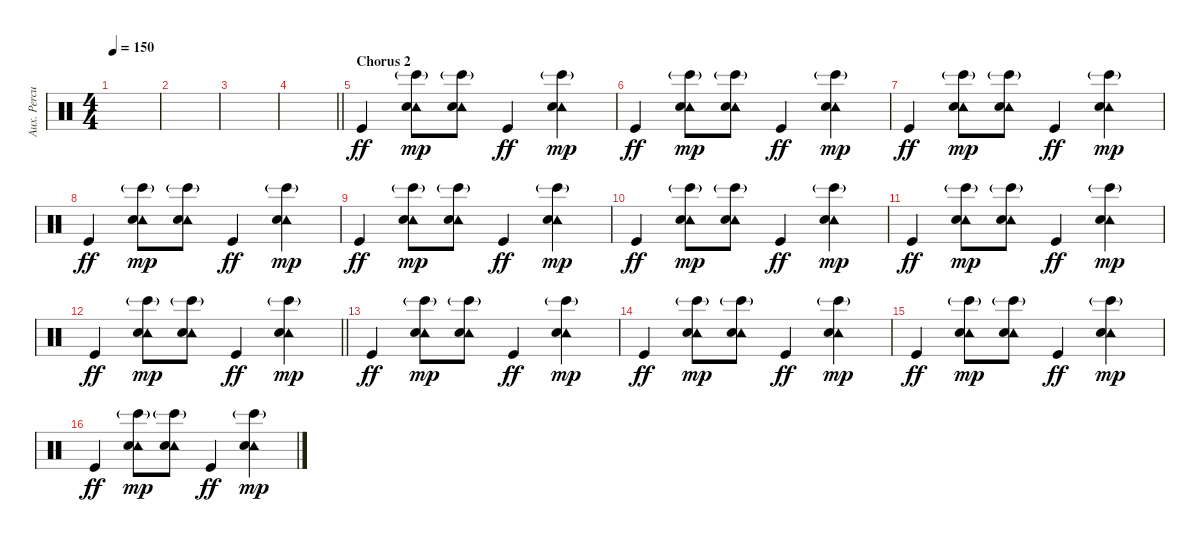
\track ("Aux. Percussion" "Aux. Percu") {instrument percussion}
\staff {score}
\articulation defaults
\ts (4 4)
\tempo 150
\clef neutral
\ks c
|
|
|
\barLineRight lightlight
|
\section ("" "Chorus 2")
"Kick (hit)".4{dy ff} ("Tambourine (hit)" "Hand Clap (hit)" "Bongo High (hit)"{g}).8{dy mp} ("Tambourine (hit)" "Hand Clap (hit)" "Bongo High (hit)"{g}).8 "Kick (hit)".4{dy ff} ("Tambourine (hit)" "Hand Clap (hit)" "Bongo High (hit)"{g}).4{dy mp} |
"Kick (hit)".4{dy ff} ("Tambourine (hit)" "Hand Clap (hit)" "Bongo High (hit)"{g}).8{dy mp} ("Tambourine (hit)" "Hand Clap (hit)" "Bongo High (hit)"{g}).8 "Kick (hit)".4{dy ff} ("Tambourine (hit)" "Hand Clap (hit)" "Bongo High (hit)"{g}).4{dy mp} |
"Kick (hit)".4{dy ff} ("Tambourine (hit)" "Hand Clap (hit)" "Bongo High (hit)"{g}).8{dy mp} ("Tambourine (hit)" "Hand Clap (hit)" "Bongo High (hit)"{g}).8 "Kick (hit)".4{dy ff} ("Tambourine (hit)" "Hand Clap (hit)" "Bongo High (hit)"{g}).4{dy mp} |
"Kick (hit)".4{dy ff} ("Tambourine (hit)" "Hand Clap (hit)" "Bongo High (hit)"{g}).8{dy mp} ("Tambourine (hit)" "Hand Clap (hit)" "Bongo High (hit)"{g}).8 "Kick (hit)".4{dy ff} ("Tambourine (hit)" "Hand Clap (hit)" "Bongo High (hit)"{g}).4{dy mp} |
"Kick (hit)".4{dy ff} ("Tambourine (hit)" "Hand Clap (hit)" "Bongo High (hit)"{g}).8{dy mp} ("Tambourine (hit)" "Hand Clap (hit)" "Bongo High (hit)"{g}).8 "Kick (hit)".4{dy ff} ("Tambourine (hit)" "Hand Clap (hit)" "Bongo High (hit)"{g}).4{dy mp} |
"Kick (hit)".4{dy ff} ("Tambourine (hit)" "Hand Clap (hit)" "Bongo High (hit)"{g}).8{dy mp} ("Tambourine (hit)" "Hand Clap (hit)" "Bongo High (hit)"{g}).8 "Kick (hit)".4{dy ff} ("Tambourine (hit)" "Hand Clap (hit)" "Bongo High (hit)"{g}).4{dy mp} |
"Kick (hit)".4{dy ff} ("Tambourine (hit)" "Hand Clap (hit)" "Bongo High (hit)"{g}).8{dy mp} ("Tambourine (hit)" "Hand Clap (hit)" "Bongo High (hit)"{g}).8 "Kick (hit)".4{dy ff} ("Tambourine (hit)" "Hand Clap (hit)" "Bongo High (hit)"{g}).4{dy mp} |
\barLineRight lightlight "Kick (hit)".4{dy ff}
("Tambourine (hit)" "Hand Clap (hit)" "Bongo High (hit)"{g}).8{dy mp} ("Tambourine (hit)" "Hand Clap (hit)" "Bongo High (hit)"{g}).8 "Kick (hit)".4{dy ff} ("Tambourine (hit)" "Hand Clap (hit)" "Bongo High (hit)"{g}).4{dy mp} |
"Kick (hit)".4{dy ff} ("Tambourine (hit)" "Hand Clap (hit)" "Bongo High (hit)"{g}).8{dy mp} ("Tambourine (hit)" "Hand Clap (hit)" "Bongo High (hit)"{g}).8 "Kick (hit)".4{dy ff} ("Tambourine (hit)" "Hand Clap (hit)" "Bongo High (hit)"{g}).4{dy mp} |
"Kick (hit)".4{dy ff} ("Tambourine (hit)" "Hand Clap (hit)" "Bongo High (hit)"{g}).8{dy mp} ("Tambourine (hit)" "Hand Clap (hit)" "Bongo High (hit)"{g}).8 "Kick (hit)".4{dy ff} ("Tambourine (hit)" "Hand Clap (hit)" "Bongo High (hit)"{g}).4{dy mp} |
"Kick (hit)".4{dy ff} ("Tambourine (hit)" "Hand Clap (hit)" "Bongo High (hit)"{g}).8{dy mp} ("Tambourine (hit)" "Hand Clap (hit)" "Bongo High (hit)"{g}).8 "Kick (hit)".4{dy ff} ("Tambourine (hit)" "Hand Clap (hit)" "Bongo High (hit)"{g}).4{dy mp} |
"Kick (hit)".4{dy ff} ("Tambourine (hit)" "Hand Clap (hit)" "Bongo High (hit)"{g}).8{dy mp} ("Tambourine (hit)" "Hand Clap (hit)" "Bongo High (hit)"{g}).8 "Kick (hit)".4{dy ff} ("Tambourine (hit)" "Hand Clap (hit)" "Bongo High (hit)"{g}).4{dy mp}
